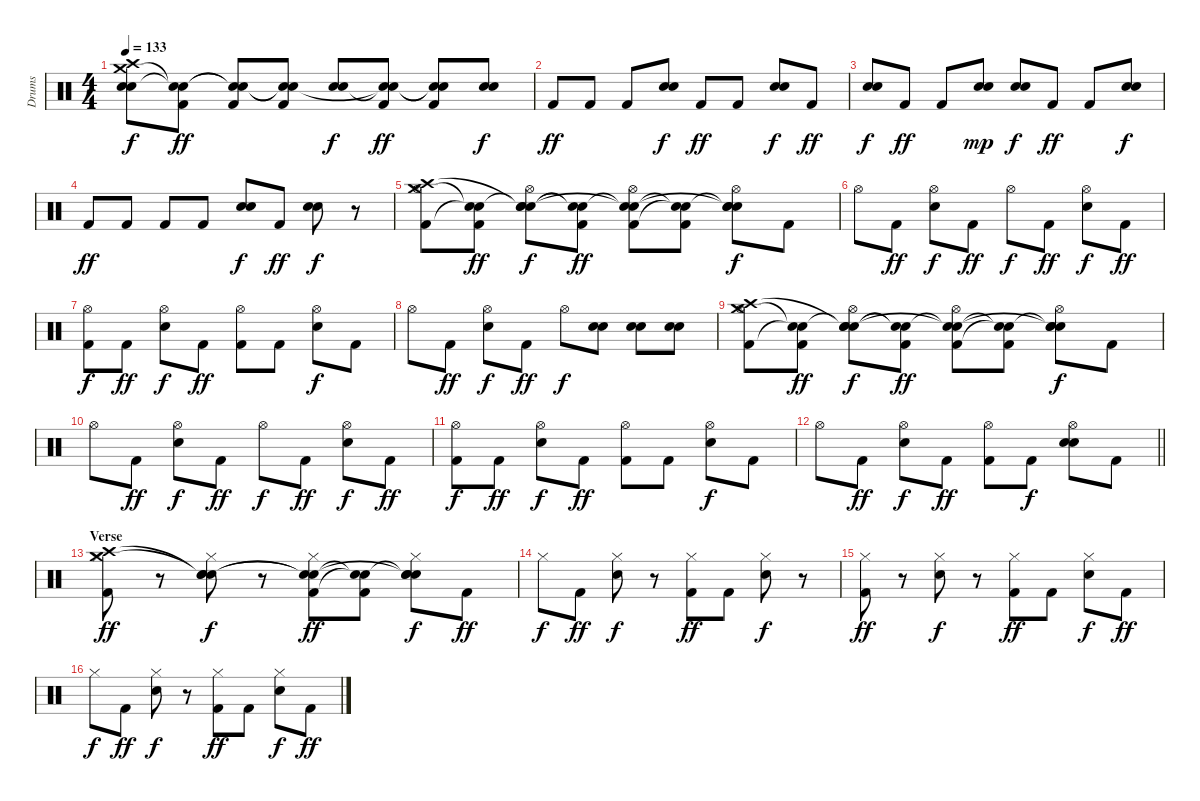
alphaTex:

\track ("Drums" "Drums") {instrument percussion}
\staff {score}
\articulation defaults
\ts (4 4)
\tempo 133
\clef neutral
\ks c
("Snare (hit) 2" "Snare (hit) 2" "Crash medium (hit)" "Crash high (hit)").8{dy f} ("Kick (hit) 2" "Snare (hit)"{t} "Snare (hit)"{t}).8{dy ff} ("Kick (hit) 2" "Snare (hit)"{t} "Snare (hit)"{t}).8 ("Kick (hit) 2" "Snare (hit)"{t} "Snare (hit)"{t}).8 ("Snare (hit) 2" "Snare (hit) 2").8{dy f} ("Kick (hit) 2" "Snare (hit)"{t} "Snare (hit)"{t}).8{dy ff} ("Kick (hit) 2" "Snare (hit)"{t} "Snare (hit)"{t}).8 ("Snare (hit) 2" "Snare (hit) 2").8{dy f} |
"Kick (hit) 2".8{dy ff} "Kick (hit) 2".8 "Kick (hit) 2".8 ("Snare (hit) 2" "Snare (hit) 2").8{dy f} "Kick (hit) 2".8{dy ff} "Kick (hit) 2".8 ("Snare (hit) 2" "Snare (hit) 2").8{dy f} "Kick (hit) 2".8{dy ff} |
("Snare (hit) 2" "Snare (hit) 2").8{dy f} "Kick (hit) 2".8{dy ff} "Kick (hit) 2".8 ("Snare (hit) 2" "Snare (hit) 2").8{dy mp} ("Snare (hit) 2" "Snare (hit) 2").8{dy f} "Kick (hit) 2".8{dy ff} "Kick (hit) 2".8 ("Snare (hit) 2" "Snare (hit) 2").8{dy f} |
"Kick (hit) 2".8{dy ff} "Kick (hit) 2".8 "Kick (hit) 2".8 "Kick (hit) 2".8 ("Snare (hit) 2" "Snare (hit) 2").8{dy f} "Kick (hit) 2".8{dy ff} ("Snare (hit) 2" "Snare (hit) 2").8{dy f} r.8 |
("Hi-Hat (open)" "Kick (hit) 2" "Crash medium (hit)" "Crash high (hit)").8 ("Kick (hit) 2" "Snare (hit)"{t} "Snare (hit)"{t}).8{dy ff} ("Hi-Hat (open)" "Snare (hit) 2" "Snare (hit)"{t} "Snare (hit)"{t}).8{dy f} ("Kick (hit) 2" "Snare (hit)"{t} "Snare (hit)"{t}).8{dy ff} ("Hi-Hat (open)" "Kick (hit) 2" "Snare (hit)"{t} "Snare (hit)"{t}).8 ("Kick (hit) 2" "Snare (hit)"{t} "Snare (hit)"{t}).8 ("Hi-Hat (open)" "Snare (hit) 2" "Snare (hit)"{t} "Snare (hit)"{t}).8{dy f} "Kick (hit) 2".8 |
"Hi-Hat (open)".8 "Kick (hit) 2".8{dy ff} ("Hi-Hat (open)" "Snare (hit) 2").8{dy f} "Kick (hit) 2".8{dy ff} "Hi-Hat (open)".8{dy f} "Kick (hit) 2".8{dy ff} ("Hi-Hat (open)" "Snare (hit) 2").8{dy f} "Kick (hit) 2".8{dy ff} |
("Hi-Hat (open)" "Kick (hit) 2").8{dy f} "Kick (hit) 2".8{dy ff} ("Hi-Hat (open)" "Snare (hit) 2").8{dy f} "Kick (hit) 2".8{dy ff} ("Hi-Hat (open)" "Kick (hit) 2").8 "Kick (hit) 2".8 ("Hi-Hat (open)" "Snare (hit) 2").8{dy f} "Kick (hit) 2".8 |
"Hi-Hat (open)".8 "Kick (hit) 2".8{dy ff} ("Hi-Hat (open)" "Snare (hit) 2").8{dy f} "Kick (hit) 2".8{dy ff} "Hi-Hat (open)".8{dy f} ("Snare (hit) 2" "Snare (hit) 2").8 ("Snare (hit) 2" "Snare (hit) 2").8 ("Snare (hit) 2" "Snare (hit) 2").8 |
("Hi-Hat (open)" "Kick (hit) 2" "Crash medium (hit)" "Crash high (hit)").8 ("Kick (hit) 2" "Snare (hit)"{t} "Snare (hit)"{t}).8{dy ff} ("Hi-Hat (open)" "Snare (hit) 2" "Snare (hit)"{t} "Snare (hit)"{t}).8{dy f} ("Kick (hit) 2" "Snare (hit)"{t} "Snare (hit)"{t}).8{dy ff} ("Hi-Hat (open)" "Kick (hit) 2" "Snare (hit)"{t} "Snare (hit)"{t}).8 ("Kick (hit) 2" "Snare (hit)"{t} "Snare (hit)"{t}).8 ("Hi-Hat (open)" "Snare (hit) 2" "Snare (hit)"{t} "Snare (hit)"{t}).8{dy f} "Kick (hit) 2".8 |
"Hi-Hat (open)".8 "Kick (hit) 2".8{dy ff} ("Hi-Hat (open)" "Snare (hit) 2").8{dy f} "Kick (hit) 2".8{dy ff} "Hi-Hat (open)".8{dy f} "Kick (hit) 2".8{dy ff} ("Hi-Hat (open)" "Snare (hit) 2").8{dy f} "Kick (hit) 2".8{dy ff} |
("Hi-Hat (open)" "Kick (hit) 2").8{dy f} "Kick (hit) 2".8{dy ff} ("Hi-Hat (open)" "Snare (hit) 2").8{dy f} "Kick (hit) 2".8{dy ff} ("Hi-Hat (open)" "Kick (hit) 2").8 "Kick (hit) 2".8 ("Hi-Hat (open)" "Snare (hit) 2").8{dy f} "Kick (hit) 2".8 |
\barLineRight lightlight "Hi-Hat (open)".8 "Kick (hit) 2".8{dy ff}
("Hi-Hat (open)" "Snare (hit) 2").8{dy f} "Kick (hit) 2".8{dy ff} ("Hi-Hat (open)" "Kick (hit) 2").8 "Kick (hit) 2".8{dy f} ("Hi-Hat (open)" "Snare (hit) 2" "Snare (hit) 2").8 "Kick (hit) 2".8 |
\section ("" "Verse")
("Hi-Hat (closed)" "Kick (hit) 2" "Crash medium (hit)" "Crash high (hit)").8{dy ff} r.8 ("Hi-Hat (closed)" "Snare (hit) 2" "Snare (hit)"{t} "Snare (hit)"{t}).8{dy f} r.8 ("Hi-Hat (closed)" "Kick (hit) 2" "Snare (hit)"{t} "Snare (hit)"{t}).8{dy ff} ("Kick (hit) 2" "Snare (hit)"{t} "Snare (hit)"{t}).8 ("Hi-Hat (closed)" "Snare (hit) 2" "Snare (hit)"{t} "Snare (hit)"{t}).8{dy f} "Kick (hit) 2".8{dy ff} |
"Hi-Hat (closed)".8{dy f} "Kick (hit) 2".8{dy ff} ("Hi-Hat (closed)" "Snare (hit) 2").8{dy f} r.8 ("Hi-Hat (closed)" "Kick (hit) 2").8{dy ff} "Kick (hit) 2".8 ("Hi-Hat (closed)" "Snare (hit) 2").8{dy f} r.8 |
("Hi-Hat (closed)" "Kick (hit) 2").8{dy ff} r.8 ("Hi-Hat (closed)" "Snare (hit) 2").8{dy f} r.8 ("Hi-Hat (closed)" "Kick (hit) 2").8{dy ff} "Kick (hit) 2".8 ("Hi-Hat (closed)" "Snare (hit) 2").8{dy f} "Kick (hit) 2".8{dy ff} |
"Hi-Hat (closed)".8{dy f} "Kick (hit) 2".8{dy ff} ("Hi-Hat (closed)" "Snare (hit) 2").8{dy f} r.8 ("Hi-Hat (closed)" "Kick (hit) 2").8{dy ff} "Kick (hit) 2".8 ("Hi-Hat (closed)" "Snare (hit) 2").8{dy f} "Kick (hit) 2".8{dy ff}
